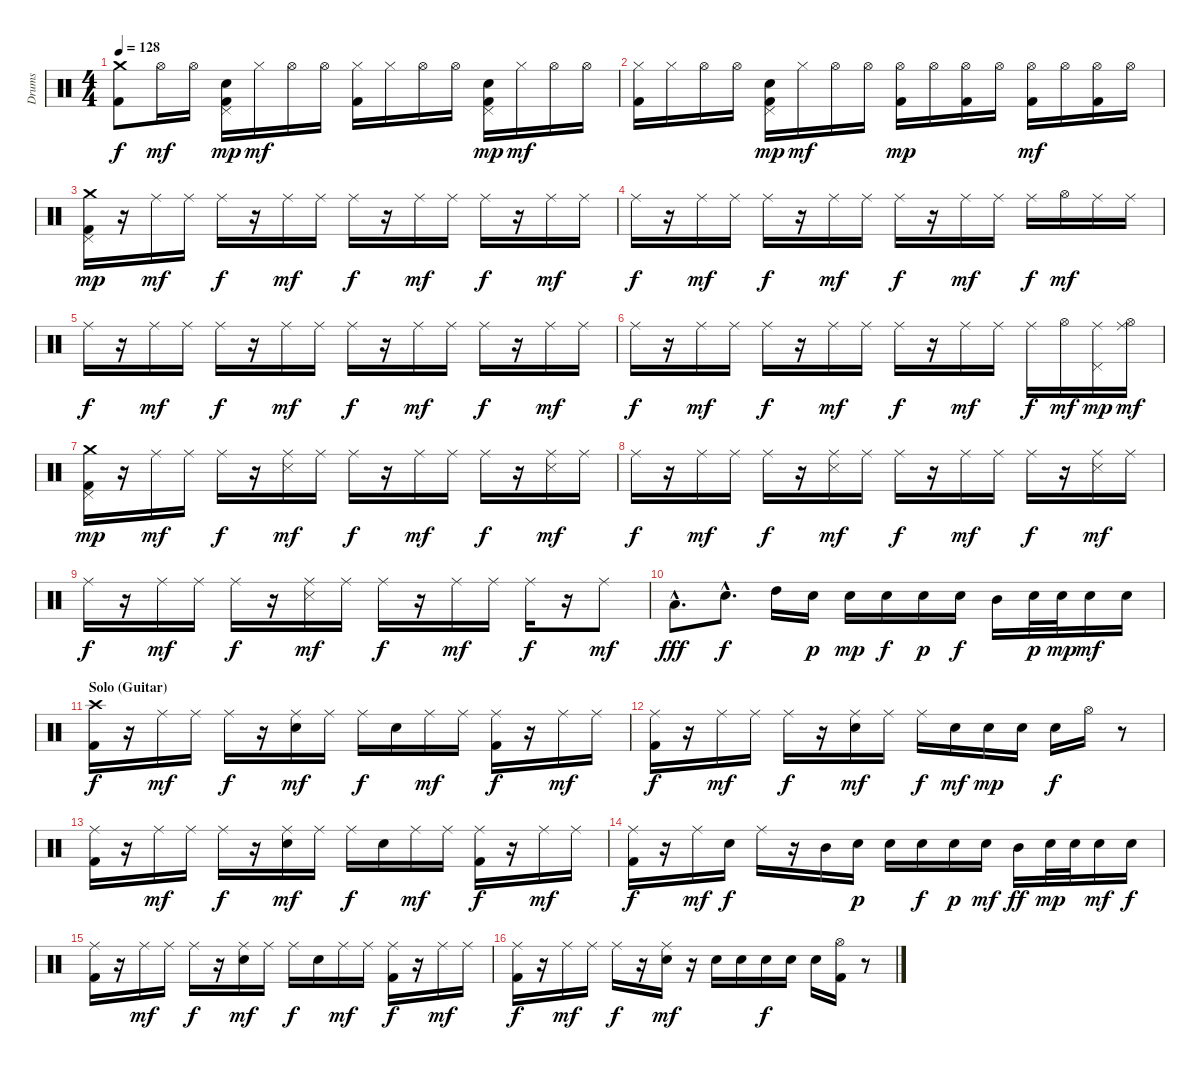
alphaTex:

\track ("Drums" "Drums") {instrument percussion}
\staff {score}
\articulation defaults
\ts (4 4)
\tempo 128
\clef neutral
\ks c
("Crash medium (hit)" "Kick (hit) 2").8{dy f} "Hi-Hat (open)".16{dy mf} "Hi-Hat (open)".16 ("Pedal Hi-Hat (hit)" "Electric Snare (hit)" "Kick (hit) 2").16{dy mp} "Hi-Hat (closed)".16{dy mf} "Hi-Hat (open)".16 "Hi-Hat (open)".16 ("Hi-Hat (closed)" "Kick (hit) 2").16 "Hi-Hat (closed)".16 "Hi-Hat (open)".16 "Hi-Hat (open)".16 ("Pedal Hi-Hat (hit)" "Electric Snare (hit)" "Kick (hit) 2").16{dy mp} "Hi-Hat (closed)".16{dy mf} "Hi-Hat (open)".16 "Hi-Hat (open)".16 |
("Hi-Hat (closed)" "Kick (hit) 2").16 "Hi-Hat (closed)".16 "Hi-Hat (open)".16 "Hi-Hat (open)".16 ("Pedal Hi-Hat (hit)" "Electric Snare (hit)" "Kick (hit) 2").16{dy mp} "Hi-Hat (closed)".16{dy mf} "Hi-Hat (open)".16 "Hi-Hat (open)".16 ("Hi-Hat (open)" "Kick (hit) 2").16{dy mp} "Hi-Hat (open)".16 ("Hi-Hat (open)" "Kick (hit) 2").16 "Hi-Hat (open)".16 ("Hi-Hat (open)" "Kick (hit) 2").16{dy mf} "Hi-Hat (open)".16 ("Hi-Hat (open)" "Kick (hit) 2").16 "Hi-Hat (open)".16 |
("Pedal Hi-Hat (hit)" "Crash medium (hit)" "Kick (hit) 2").16{dy mp} r.16 "Ride (middle)".16{dy mf} "Ride (middle)".16 "Ride (middle)".16{dy f} r.16 "Ride (middle)".16{dy mf} "Ride (middle)".16 "Ride (middle)".16{dy f} r.16 "Ride (middle)".16{dy mf} "Ride (middle)".16 "Ride (middle)".16{dy f} r.16 "Ride (middle)".16{dy mf} "Ride (middle)".16 |
"Ride (middle)".16{dy f} r.16 "Ride (middle)".16{dy mf} "Ride (middle)".16 "Ride (middle)".16{dy f} r.16 "Ride (middle)".16{dy mf} "Ride (middle)".16 "Ride (middle)".16{dy f} r.16 "Ride (middle)".16{dy mf} "Ride (middle)".16 "Ride (middle)".16{dy f} "Hi-Hat (open)".16{dy mf} "Ride (middle)".16 "Ride (middle)".16 |
"Ride (middle)".16{dy f} r.16 "Ride (middle)".16{dy mf} "Ride (middle)".16 "Ride (middle)".16{dy f} r.16 "Ride (middle)".16{dy mf} "Ride (middle)".16 "Ride (middle)".16{dy f} r.16 "Ride (middle)".16{dy mf} "Ride (middle)".16 "Ride (middle)".16{dy f} r.16 "Ride (middle)".16{dy mf} "Ride (middle)".16 |
"Ride (middle)".16{dy f} r.16 "Ride (middle)".16{dy mf} "Ride (middle)".16 "Ride (middle)".16{dy f} r.16 "Ride (middle)".16{dy mf} "Ride (middle)".16 "Ride (middle)".16{dy f} r.16 "Ride (middle)".16{dy mf} "Ride (middle)".16 "Ride (middle)".16{dy f} "Hi-Hat (open)".16{dy mf} ("Ride (middle)" "Pedal Hi-Hat (hit)").16{dy mp} ("Ride (middle)" "Hi-Hat (open)").16{dy mf} |
("Crash medium (hit)" "Pedal Hi-Hat (hit)" "Kick (hit) 2").16{dy mp} r.16 "Ride (middle)".16{dy mf} "Ride (middle)".16 "Ride (middle)".16{dy f} r.16 ("Ride (middle)" "Snare (side stick) 3").16{dy mf} "Ride (middle)".16 "Ride (middle)".16{dy f} r.16 "Ride (middle)".16{dy mf} "Ride (middle)".16 "Ride (middle)".16{dy f} r.16 ("Ride (middle)" "Snare (side stick) 3").16{dy mf} "Ride (middle)".16 |
"Ride (middle)".16{dy f} r.16 "Ride (middle)".16{dy mf} "Ride (middle)".16 "Ride (middle)".16{dy f} r.16 ("Ride (middle)" "Snare (side stick) 3").16{dy mf} "Ride (middle)".16 "Ride (middle)".16{dy f} r.16 "Ride (middle)".16{dy mf} "Ride (middle)".16 "Ride (middle)".16{dy f} r.16 ("Ride (middle)" "Snare (side stick) 3").16{dy mf} "Ride (middle)".16 |
"Ride (middle)".16{dy f} r.16 "Ride (middle)".16{dy mf} "Ride (middle)".16 "Ride (middle)".16{dy f} r.16 ("Ride (middle)" "Snare (side stick) 3").16{dy mf} "Ride (middle)".16 "Ride (middle)".16{dy f} r.16 "Ride (middle)".16{dy mf} "Ride (middle)".16 "Ride (middle)".16{dy f} r.16 "Ride (middle)".8{dy mf} |
"Low Tom (hit)"{hac}.8{d dy fff} "Electric Snare (hit)"{hac}.8{d dy f} "High Tom (hit)".16 "Electric Snare (hit)".16{dy p} "Electric Snare (hit)".16{dy mp} "Electric Snare (hit)".16{dy f} "Electric Snare (hit)".16{dy p} "Electric Snare (hit)".16{dy f} "Mid Tom (hit)".16 "Electric Snare (hit)".32{dy p} "Electric Snare (hit)".32{dy mp} "Electric Snare (hit)".16{dy mf} "Electric Snare (hit)".16 |
\section ("" "Solo (Guitar)")
("Crash high (hit)" "Kick (hit) 2").16{dy f} r.16 "Ride (middle)".16{dy mf} "Ride (middle)".16 "Ride (middle)".16{dy f} r.16 ("Ride (middle)" "Electric Snare (hit)").16{dy mf} "Ride (middle)".16 "Ride (middle)".16{dy f} "Electric Snare (hit)".16 "Ride (middle)".16{dy mf} "Ride (middle)".16 ("Ride (middle)" "Kick (hit) 2").16{dy f} r.16 "Ride (middle)".16{dy mf} "Ride (middle)".16 |
("Ride (middle)" "Kick (hit) 2").16{dy f} r.16 "Ride (middle)".16{dy mf} "Ride (middle)".16 "Ride (middle)".16{dy f} r.16 ("Ride (middle)" "Electric Snare (hit)").16{dy mf} "Ride (middle)".16 "Ride (middle)".16{dy f} "Electric Snare (hit)".16{dy mf} "Electric Snare (hit)".16{dy mp} "Electric Snare (hit)".16 "Electric Snare (hit)".16{dy f} "Hi-Hat (open)".16 r.8 |
("Ride (middle)" "Kick (hit) 2").16 r.16 "Ride (middle)".16{dy mf} "Ride (middle)".16 "Ride (middle)".16{dy f} r.16 ("Ride (middle)" "Electric Snare (hit)").16{dy mf} "Ride (middle)".16 "Ride (middle)".16{dy f} "Electric Snare (hit)".16 "Ride (middle)".16{dy mf} "Ride (middle)".16 ("Ride (middle)" "Kick (hit) 2").16{dy f} r.16 "Ride (middle)".16{dy mf} "Ride (middle)".16 |
("Ride (middle)" "Kick (hit) 2").16{dy f} r.16 "Ride (middle)".16{dy mf} "Electric Snare (hit)".16{dy f} "Ride (middle)".16 r.16 "Mid Tom (hit)".16 "Electric Snare (hit)".16{dy p} "Electric Snare (hit)".16 "Electric Snare (hit)".16{dy f} "Electric Snare (hit)".16{dy p} "Electric Snare (hit)".16{dy mf} "Mid Tom (hit)".16{dy ff} "Electric Snare (hit)".32{dy mp} "Electric Snare (hit)".32 "Electric Snare (hit)".16{dy mf} "Electric Snare (hit)".16{dy f} |
("Ride (middle)" "Kick (hit) 2").16 r.16 "Ride (middle)".16{dy mf} "Ride (middle)".16 "Ride (middle)".16{dy f} r.16 ("Ride (middle)" "Electric Snare (hit)").16{dy mf} "Ride (middle)".16 "Ride (middle)".16{dy f} "Electric Snare (hit)".16 "Ride (middle)".16{dy mf} "Ride (middle)".16 ("Ride (middle)" "Kick (hit) 2").16{dy f} r.16 "Ride (middle)".16{dy mf} "Ride (middle)".16 |
("Ride (middle)" "Kick (hit) 2").16{dy f} r.16 "Ride (middle)".16{dy mf} "Ride (middle)".16 "Ride (middle)".16{dy f} r.16 ("Ride (middle)" "Electric Snare (hit)").16{dy mf} r.16 "Electric Snare (hit)".16 "Electric Snare (hit)".16 "Electric Snare (hit)".16{dy f} "Electric Snare (hit)".16 "Electric Snare (hit)".16 ("Hi-Hat (open)" "Kick (hit) 2").16 r.8
